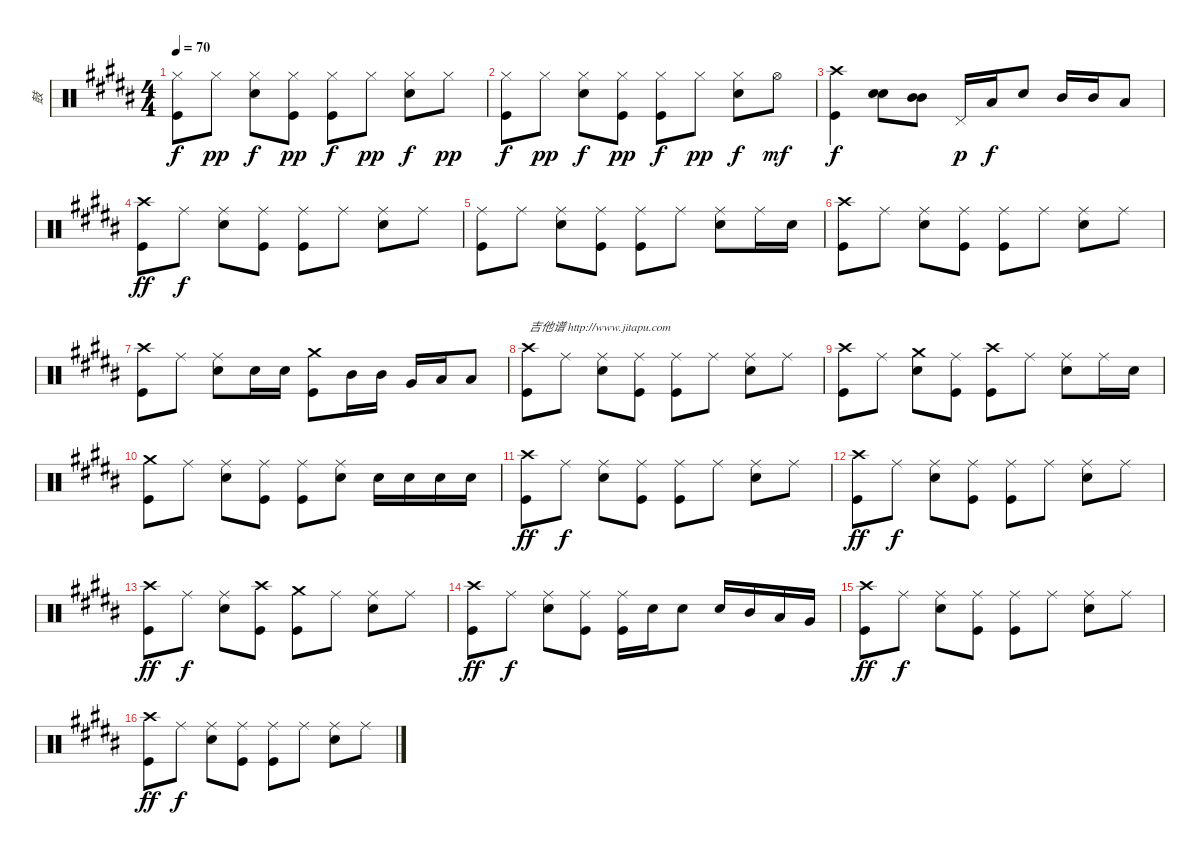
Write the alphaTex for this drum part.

\track ("鼓" "鼓") {instrument percussion}
\staff {score}
\articulation defaults
\ts (4 4)
\tempo 70
\clef neutral
\ks b
("Hi-Hat (closed)" "Kick (hit)").8{dy f} "Hi-Hat (closed)".8{dy pp} ("Hi-Hat (closed)" "Electric Snare (hit)").8{dy f} ("Hi-Hat (closed)" "Kick (hit)").8{dy pp} ("Hi-Hat (closed)" "Kick (hit)").8{dy f} "Hi-Hat (closed)".8{dy pp} ("Hi-Hat (closed)" "Electric Snare (hit)").8{dy f} "Hi-Hat (closed)".8{dy pp} |
("Hi-Hat (closed)" "Kick (hit)").8{dy f} "Hi-Hat (closed)".8{dy pp} ("Hi-Hat (closed)" "Electric Snare (hit)").8{dy f} ("Hi-Hat (closed)" "Kick (hit)").8{dy pp} ("Hi-Hat (closed)" "Kick (hit)").8{dy f} "Hi-Hat (closed)".8{dy pp} ("Hi-Hat (closed)" "Electric Snare (hit)").8{dy f} "Hi-Hat (open)".8{dy mf} |
("Crash high (hit)" "Kick (hit)").4{dy f} ("Electric Snare (hit)" "Electric Snare (hit)").8 ("Mid Tom (hit)" "Mid Tom (hit)").8 "Pedal Hi-Hat (hit)".16{dy p} "Low Tom (hit)".16{dy f} "Electric Snare (hit)".8 "Mid Tom (hit)".16 "Mid Tom (hit)".16 "Low Tom (hit)".8 |
("Crash high (hit)" "Kick (hit)").8{dy ff} "Ride (middle)".8{dy f} ("Ride (middle)" "Electric Snare (hit)").8 ("Ride (middle)" "Kick (hit)").8 ("Ride (middle)" "Kick (hit)").8 "Ride (middle)".8 ("Ride (middle)" "Electric Snare (hit)").8 "Ride (middle)".8 |
("Ride (middle)" "Kick (hit)").8 "Ride (middle)".8 ("Ride (middle)" "Electric Snare (hit)").8 ("Ride (middle)" "Kick (hit)").8 ("Ride (middle)" "Kick (hit)").8 "Ride (middle)".8 ("Ride (middle)" "Electric Snare (hit)").8 "Ride (middle)".16 "Electric Snare (hit)".16 |
("Crash high (hit)" "Kick (hit)").8 "Ride (middle)".8 ("Ride (middle)" "Electric Snare (hit)").8 ("Ride (middle)" "Kick (hit)").8 ("Ride (middle)" "Kick (hit)").8 "Ride (middle)".8 ("Ride (middle)" "Electric Snare (hit)").8 "Ride (middle)".8 |
("Crash high (hit)" "Kick (hit)").8 "Ride (middle)".8 ("Ride (middle)" "Electric Snare (hit)").8 "Electric Snare (hit)".16 "Electric Snare (hit)".16 ("Crash medium (hit)" "Kick (hit)").8 "Mid Tom (hit)".16 "Mid Tom (hit)".16 "Very Low Tom (hit)".16 "Low Tom (hit)".16 "Low Tom (hit)".8 |
("Crash high (hit)" "Kick (hit)").8{txt "吉他谱 http://www.jitapu.com"} "Ride (middle)".8 ("Ride (middle)" "Electric Snare (hit)").8 ("Ride (middle)" "Kick (hit)").8 ("Ride (middle)" "Kick (hit)").8 "Ride (middle)".8 ("Ride (middle)" "Electric Snare (hit)").8 "Ride (middle)".8 |
("Crash high (hit)" "Kick (hit)").8 "Ride (middle)".8 ("Crash medium (hit)" "Electric Snare (hit)").8 ("Ride (middle)" "Kick (hit)").8 ("Crash high (hit)" "Kick (hit)").8 "Ride (middle)".8 ("Ride (middle)" "Electric Snare (hit)").8 "Ride (middle)".16 "Electric Snare (hit)".16 |
("Crash medium (hit)" "Kick (hit)").8 "Ride (middle)".8 ("Ride (middle)" "Electric Snare (hit)").8 ("Ride (middle)" "Kick (hit)").8 ("Ride (middle)" "Kick (hit)").8 ("Ride (middle)" "Electric Snare (hit)").8 "Electric Snare (hit)".16 "Electric Snare (hit)".16 "Electric Snare (hit)".16 "Electric Snare (hit)".16 |
("Crash high (hit)" "Kick (hit)").8{dy ff} "Ride (middle)".8{dy f} ("Ride (middle)" "Electric Snare (hit)").8 ("Ride (middle)" "Kick (hit)").8 ("Ride (middle)" "Kick (hit)").8 "Ride (middle)".8 ("Ride (middle)" "Electric Snare (hit)").8 "Ride (middle)".8 |
("Crash high (hit)" "Kick (hit)").8{dy ff} "Ride (middle)".8{dy f} ("Ride (middle)" "Electric Snare (hit)").8 ("Ride (middle)" "Kick (hit)").8 ("Ride (middle)" "Kick (hit)").8 "Ride (middle)".8 ("Ride (middle)" "Electric Snare (hit)").8 "Ride (middle)".8 |
("Crash high (hit)" "Kick (hit)").8{dy ff} "Ride (middle)".8{dy f} ("Ride (middle)" "Electric Snare (hit)").8 ("Crash high (hit)" "Kick (hit)").8 ("Crash medium (hit)" "Kick (hit)").8 "Ride (middle)".8 ("Ride (middle)" "Electric Snare (hit)").8 "Ride (middle)".8 |
("Crash high (hit)" "Kick (hit)").8{dy ff} "Ride (middle)".8{dy f} ("Ride (middle)" "Electric Snare (hit)").8 ("Ride (middle)" "Kick (hit)").8 ("Ride (middle)" "Kick (hit)").16 "Electric Snare (hit)".16 "Electric Snare (hit)".8 "Electric Snare (hit)".16 "Mid Tom (hit)".16 "Low Tom (hit)".16 "Very Low Tom (hit)".16 |
("Crash high (hit)" "Kick (hit)").8{dy ff} "Ride (middle)".8{dy f} ("Ride (middle)" "Electric Snare (hit)").8 ("Ride (middle)" "Kick (hit)").8 ("Ride (middle)" "Kick (hit)").8 "Ride (middle)".8 ("Ride (middle)" "Electric Snare (hit)").8 "Ride (middle)".8 |
("Crash high (hit)" "Kick (hit)").8{dy ff} "Ride (middle)".8{dy f} ("Ride (middle)" "Electric Snare (hit)").8 ("Ride (middle)" "Kick (hit)").8 ("Ride (middle)" "Kick (hit)").8 "Ride (middle)".8 ("Ride (middle)" "Electric Snare (hit)").8 "Ride (middle)".8
